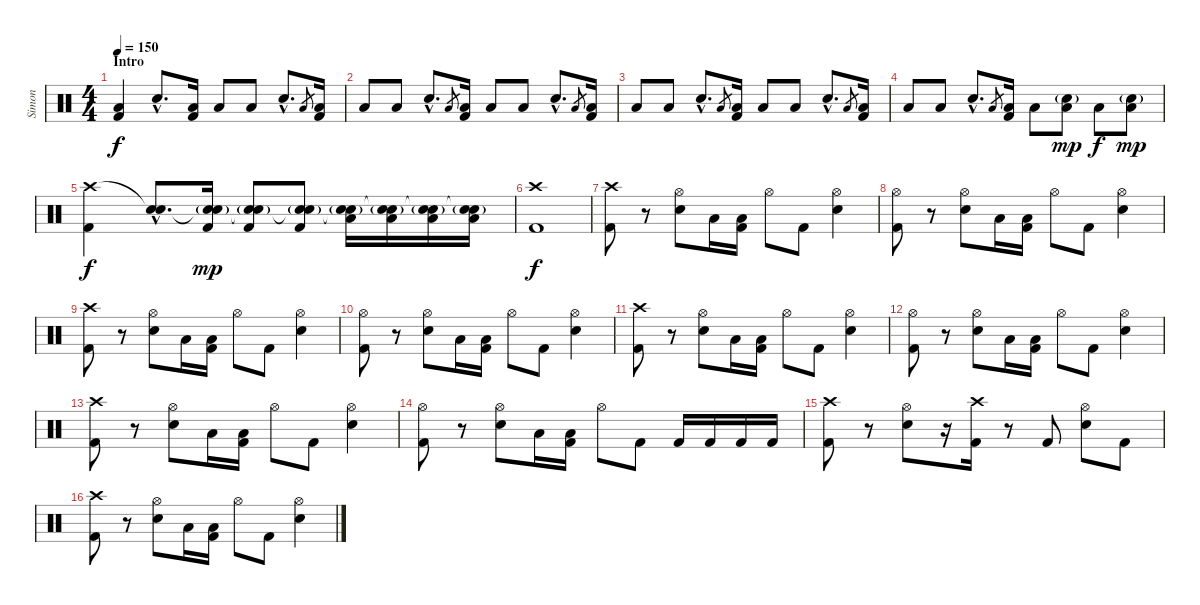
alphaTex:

\track ("Simon" "Simon") {instrument percussion}
\staff {score}
\articulation defaults
\ts (4 4)
\section ("" "Intro")
\tempo 150
\clef neutral
\ks c
("Kick (hit) 2" "Low Tom (hit)").4{dy f} "Electric Snare (hit)"{hac}.8{d} ("Kick (hit) 2" "Low Tom (hit)").16 "Low Tom (hit)".8 "Low Tom (hit)".8 "Electric Snare (hit)"{hac}.8{d} "Low Tom (hit)".8{gr} ("Kick (hit) 2" "Low Tom (hit)").16 |
"Low Tom (hit)".8 "Low Tom (hit)".8 "Electric Snare (hit)"{hac}.8{d} "Low Tom (hit)".8{gr} ("Kick (hit) 2" "Low Tom (hit)").16 "Low Tom (hit)".8 "Low Tom (hit)".8 "Electric Snare (hit)"{hac}.8{d} "Low Tom (hit)".8{gr} ("Kick (hit) 2" "Low Tom (hit)").16 |
"Low Tom (hit)".8 "Low Tom (hit)".8 "Electric Snare (hit)"{hac}.8{d} "Low Tom (hit)".8{gr} ("Kick (hit) 2" "Low Tom (hit)").16 "Low Tom (hit)".8 "Low Tom (hit)".8 "Electric Snare (hit)"{hac}.8{d} "Low Tom (hit)".8{gr} ("Kick (hit) 2" "Low Tom (hit)").16 |
"Low Tom (hit)".8 "Low Tom (hit)".8 "Electric Snare (hit)"{hac}.8{d} "Low Tom (hit)".8{gr} ("Kick (hit) 2" "Low Tom (hit)").16 "Low Tom (hit)".8 ("Electric Snare (hit)"{g} "Low Tom (hit)").8{dy mp} "Low Tom (hit)".8{dy f} ("Electric Snare (hit)"{g} "Low Tom (hit)").8{dy mp} |
("Crash high (hit)" "Kick (hit) 2").4{dy f} ("Snare (hit)"{hac t} "Electric Snare (hit)"{hac}).8{d} ("Snare (hit)"{t} "Kick (hit) 2" "Electric Snare (hit)"{g}).16{dy mp} ("Snare (hit)"{t} "Kick (hit) 2" "Electric Snare (hit)"{g}).8 ("Snare (hit)"{t} "Kick (hit) 2" "Electric Snare (hit)"{g}).8 ("Snare (hit)"{t} "Low Tom (hit)" "Electric Snare (hit)"{g}).16 ("Snare (hit)"{t} "Low Tom (hit)" "Electric Snare (hit)"{g}).16 ("Snare (hit)"{t} "Low Tom (hit)" "Electric Snare (hit)"{g}).16 ("Snare (hit)"{t} "Low Tom (hit)" "Electric Snare (hit)"{g}).16 |
("Crash high (hit)" "Kick (hit) 2").1{dy f} |
("Crash high (hit)" "Kick (hit) 2").8 r.8 ("Hi-Hat (open)" "Electric Snare (hit)").8 "Low Tom (hit)".16 ("Kick (hit) 2" "Low Tom (hit)").16 "Hi-Hat (open)".8 "Kick (hit) 2".8 ("Hi-Hat (open)" "Electric Snare (hit)").4 |
("Hi-Hat (open)" "Kick (hit) 2").8 r.8 ("Hi-Hat (open)" "Electric Snare (hit)").8 "Low Tom (hit)".16 ("Kick (hit) 2" "Low Tom (hit)").16 "Hi-Hat (open)".8 "Kick (hit) 2".8 ("Hi-Hat (open)" "Electric Snare (hit)").4 |
("Crash high (hit)" "Kick (hit) 2").8 r.8 ("Hi-Hat (open)" "Electric Snare (hit)").8 "Low Tom (hit)".16 ("Kick (hit) 2" "Low Tom (hit)").16 "Hi-Hat (open)".8 "Kick (hit) 2".8 ("Hi-Hat (open)" "Electric Snare (hit)").4 |
("Hi-Hat (open)" "Kick (hit) 2").8 r.8 ("Hi-Hat (open)" "Electric Snare (hit)").8 "Low Tom (hit)".16 ("Kick (hit) 2" "Low Tom (hit)").16 "Hi-Hat (open)".8 "Kick (hit) 2".8 ("Hi-Hat (open)" "Electric Snare (hit)").4 |
("Crash high (hit)" "Kick (hit) 2").8 r.8 ("Hi-Hat (open)" "Electric Snare (hit)").8 "Low Tom (hit)".16 ("Kick (hit) 2" "Low Tom (hit)").16 "Hi-Hat (open)".8 "Kick (hit) 2".8 ("Hi-Hat (open)" "Electric Snare (hit)").4 |
("Hi-Hat (open)" "Kick (hit) 2").8 r.8 ("Hi-Hat (open)" "Electric Snare (hit)").8 "Low Tom (hit)".16 ("Kick (hit) 2" "Low Tom (hit)").16 "Hi-Hat (open)".8 "Kick (hit) 2".8 ("Hi-Hat (open)" "Electric Snare (hit)").4 |
("Crash high (hit)" "Kick (hit) 2").8 r.8 ("Hi-Hat (open)" "Electric Snare (hit)").8 "Low Tom (hit)".16 ("Kick (hit) 2" "Low Tom (hit)").16 "Hi-Hat (open)".8 "Kick (hit) 2".8 ("Hi-Hat (open)" "Electric Snare (hit)").4 |
("Hi-Hat (open)" "Kick (hit) 2").8 r.8 ("Hi-Hat (open)" "Electric Snare (hit)").8 "Low Tom (hit)".16 ("Kick (hit) 2" "Low Tom (hit)").16 "Hi-Hat (open)".8 "Kick (hit) 2".8 "Kick (hit) 2".16 "Kick (hit) 2".16 "Kick (hit) 2".16 "Kick (hit) 2".16 |
("Crash high (hit)" "Kick (hit) 2").8 r.8 ("Hi-Hat (open)" "Electric Snare (hit)").8 r.16 ("Crash high (hit)" "Kick (hit) 2").16 r.8 "Kick (hit) 2".8 ("Hi-Hat (open)" "Electric Snare (hit)").8 "Kick (hit) 2".8 |
("Crash high (hit)" "Kick (hit) 2").8 r.8 ("Hi-Hat (open)" "Electric Snare (hit)").8 "Low Tom (hit)".16 ("Kick (hit) 2" "Low Tom (hit)").16 "Hi-Hat (open)".8 "Kick (hit) 2".8 ("Hi-Hat (open)" "Electric Snare (hit)").4
